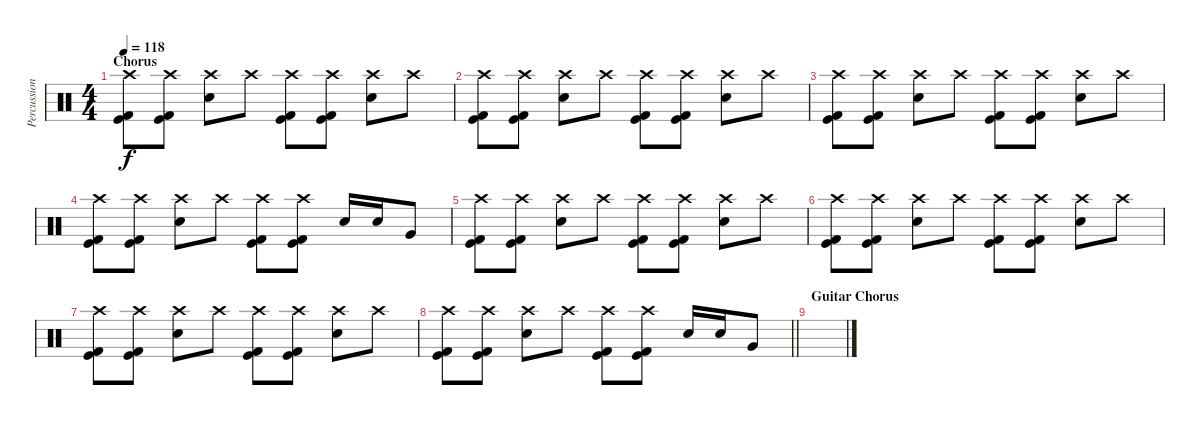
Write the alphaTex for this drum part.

\track ("Percussion" "Percussion") {instrument percussion}
\staff {score}
\articulation defaults
\ts (4 4)
\section ("" "Chorus")
\tempo 118
\clef neutral
\ks c
("Crash high (hit)" "Kick (hit) 2" "Kick (hit)").8{dy f} ("Crash high (hit)" "Kick (hit) 2" "Kick (hit)").8 ("Crash high (hit)" "Electric Snare (hit)").8 "Crash high (hit)".8 ("Crash high (hit)" "Kick (hit) 2" "Kick (hit)").8 ("Crash high (hit)" "Kick (hit) 2" "Kick (hit)").8 ("Crash high (hit)" "Electric Snare (hit)").8 "Crash high (hit)".8 |
("Crash high (hit)" "Kick (hit) 2" "Kick (hit)").8 ("Crash high (hit)" "Kick (hit) 2" "Kick (hit)").8 ("Crash high (hit)" "Electric Snare (hit)").8 "Crash high (hit)".8 ("Crash high (hit)" "Kick (hit) 2" "Kick (hit)").8 ("Crash high (hit)" "Kick (hit) 2" "Kick (hit)").8 ("Crash high (hit)" "Electric Snare (hit)").8 "Crash high (hit)".8 |
("Crash high (hit)" "Kick (hit) 2" "Kick (hit)").8 ("Crash high (hit)" "Kick (hit) 2" "Kick (hit)").8 ("Crash high (hit)" "Electric Snare (hit)").8 "Crash high (hit)".8 ("Crash high (hit)" "Kick (hit) 2" "Kick (hit)").8 ("Crash high (hit)" "Kick (hit) 2" "Kick (hit)").8 ("Crash high (hit)" "Electric Snare (hit)").8 "Crash high (hit)".8 |
("Crash high (hit)" "Kick (hit) 2" "Kick (hit)").8 ("Crash high (hit)" "Kick (hit) 2" "Kick (hit)").8 ("Crash high (hit)" "Electric Snare (hit)").8 "Crash high (hit)".8 ("Crash high (hit)" "Kick (hit) 2" "Kick (hit)").8 ("Crash high (hit)" "Kick (hit) 2" "Kick (hit)").8 "Electric Snare (hit)".16 "Electric Snare (hit)".16 "Very Low Tom (hit)".8 |
("Crash high (hit)" "Kick (hit) 2" "Kick (hit)").8 ("Crash high (hit)" "Kick (hit) 2" "Kick (hit)").8 ("Crash high (hit)" "Electric Snare (hit)").8 "Crash high (hit)".8 ("Crash high (hit)" "Kick (hit) 2" "Kick (hit)").8 ("Crash high (hit)" "Kick (hit) 2" "Kick (hit)").8 ("Crash high (hit)" "Electric Snare (hit)").8 "Crash high (hit)".8 |
("Crash high (hit)" "Kick (hit) 2" "Kick (hit)").8 ("Crash high (hit)" "Kick (hit) 2" "Kick (hit)").8 ("Crash high (hit)" "Electric Snare (hit)").8 "Crash high (hit)".8 ("Crash high (hit)" "Kick (hit) 2" "Kick (hit)").8 ("Crash high (hit)" "Kick (hit) 2" "Kick (hit)").8 ("Crash high (hit)" "Electric Snare (hit)").8 "Crash high (hit)".8 |
("Crash high (hit)" "Kick (hit) 2" "Kick (hit)").8 ("Crash high (hit)" "Kick (hit) 2" "Kick (hit)").8 ("Crash high (hit)" "Electric Snare (hit)").8 "Crash high (hit)".8 ("Crash high (hit)" "Kick (hit) 2" "Kick (hit)").8 ("Crash high (hit)" "Kick (hit) 2" "Kick (hit)").8 ("Crash high (hit)" "Electric Snare (hit)").8 "Crash high (hit)".8 |
\barLineRight lightlight
("Crash high (hit)" "Kick (hit) 2" "Kick (hit)").8 ("Crash high (hit)" "Kick (hit) 2" "Kick (hit)").8 ("Crash high (hit)" "Electric Snare (hit)").8 "Crash high (hit)".8 ("Crash high (hit)" "Kick (hit) 2" "Kick (hit)").8 ("Crash high (hit)" "Kick (hit) 2" "Kick (hit)").8 "Electric Snare (hit)".16 "Electric Snare (hit)".16 "Very Low Tom (hit)".8 |
\section ("" "Guitar Chorus")
